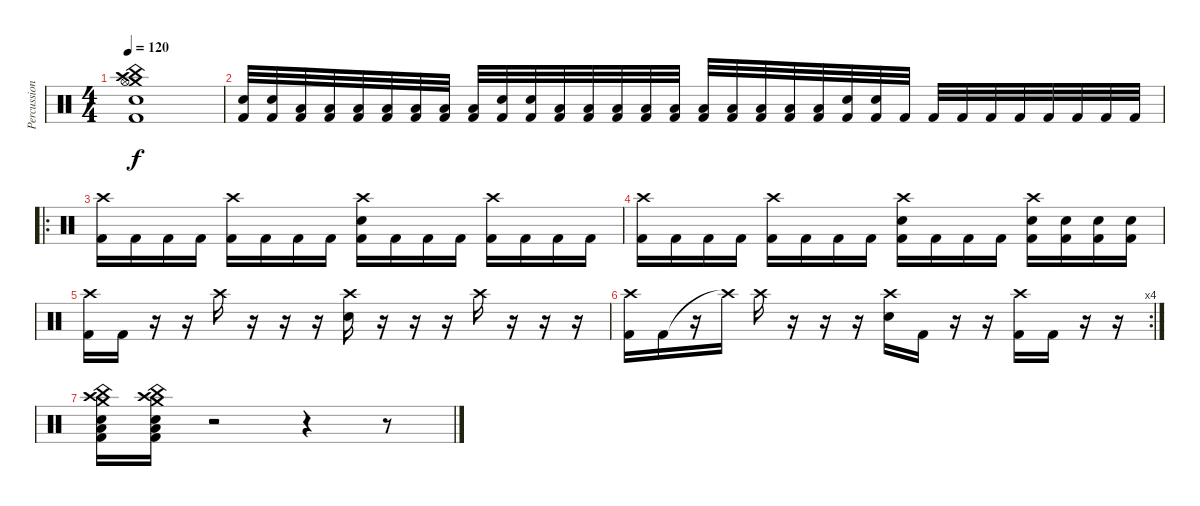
\track ("Percussions" "Percussion") {instrument percussion}
\staff {score}
\articulation defaults
\ts (4 4)
\tempo 120
\clef neutral
\ks c
("Crash medium (hit)" "China (hit)" "Crash high (hit)" "Hi-Hat (open)" "Kick (hit) 2" "Electric Snare (hit)").1{dy f} |
("Electric Snare (hit)" "Kick (hit) 2").32 ("Electric Snare (hit)" "Kick (hit) 2").32 ("Low Floor Tom (hit)" "Kick (hit) 2").32 ("Low Tom (hit)" "Kick (hit) 2").32 ("Low Tom (hit)" "Kick (hit) 2").32 ("Low Tom (hit)" "Kick (hit) 2").32 ("Low Tom (hit)" "Kick (hit) 2").32 ("Low Tom (hit)" "Kick (hit) 2").32 ("Low Tom (hit)" "Kick (hit) 2").32 ("Electric Snare (hit)" "Kick (hit) 2").32 ("Electric Snare (hit)" "Kick (hit) 2").32 ("Low Floor Tom (hit)" "Kick (hit) 2").32 ("Low Tom (hit)" "Kick (hit) 2").32 ("Low Tom (hit)" "Kick (hit) 2").32 ("Low Tom (hit)" "Kick (hit) 2").32 ("Low Tom (hit)" "Kick (hit) 2").32 ("Low Tom (hit)" "Kick (hit) 2").32 ("Low Tom (hit)" "Kick (hit) 2").32 ("Low Tom (hit)" "Kick (hit) 2").32 ("Low Tom (hit)" "Kick (hit) 2").32 ("Low Tom (hit)" "Kick (hit) 2").32 ("Electric Snare (hit)" "Kick (hit) 2").32 ("Electric Snare (hit)" "Kick (hit) 2").32 "Kick (hit) 2".32 "Kick (hit) 2".32 "Kick (hit) 2".32 "Kick (hit) 2".32 "Kick (hit) 2".32 "Kick (hit) 2".32 "Kick (hit) 2".32 "Kick (hit) 2".32 "Kick (hit) 2".32 |
\ro
("Crash high (hit)" "Kick (hit) 2").16 "Kick (hit) 2".16 "Kick (hit) 2".16 "Kick (hit) 2".16 ("Crash high (hit)" "Kick (hit) 2").16 "Kick (hit) 2".16 "Kick (hit) 2".16 "Kick (hit) 2".16 ("Crash high (hit)" "Electric Snare (hit)" "Kick (hit) 2").16 "Kick (hit) 2".16 "Kick (hit) 2".16 "Kick (hit) 2".16 ("Crash high (hit)" "Kick (hit) 2").16 "Kick (hit) 2".16 "Kick (hit) 2".16 "Kick (hit) 2".16 |
("Crash high (hit)" "Kick (hit) 2").16 "Kick (hit) 2".16 "Kick (hit) 2".16 "Kick (hit) 2".16 ("Crash high (hit)" "Kick (hit) 2").16 "Kick (hit) 2".16 "Kick (hit) 2".16 "Kick (hit) 2".16 ("Crash high (hit)" "Electric Snare (hit)" "Kick (hit) 2").16 "Kick (hit) 2".16 "Kick (hit) 2".16 "Kick (hit) 2".16 ("Crash high (hit)" "Electric Snare (hit)" "Kick (hit) 2").16 ("Electric Snare (hit)" "Kick (hit) 2").16 ("Electric Snare (hit)" "Kick (hit) 2").16 ("Electric Snare (hit)" "Kick (hit) 2").16 |
("Crash high (hit)" "Kick (hit) 2").16 "Kick (hit) 2".16 r.16 r.16 "Crash high (hit)".16 r.16 r.16 r.16 ("Crash high (hit)" "Snare (hit) 2").16 r.16 r.16 r.16 "Crash high (hit)".16 r.16 r.16 r.16 |
\rc 4
("Crash high (hit)" "Kick (hit) 2").16 "Kick (hit) 2".16 r.16 "Crash high (hit)"{t}.16 "Crash high (hit)".16 r.16 r.16 r.16 ("Crash high (hit)" "Snare (hit) 2").16 "Kick (hit) 2".16 r.16 r.16 ("Crash high (hit)" "Kick (hit) 2").16 "Kick (hit) 2".16 r.16 r.16 |
("Crash high (hit)" "China (hit)" "Low Tom (hit)" "Crash medium (hit)" "Electric Snare (hit)" "Kick (hit) 2").16 ("Crash high (hit)" "China (hit)" "Low Tom (hit)" "Crash medium (hit)" "Electric Snare (hit)" "Kick (hit) 2").16 r.2 r.4 r.8
